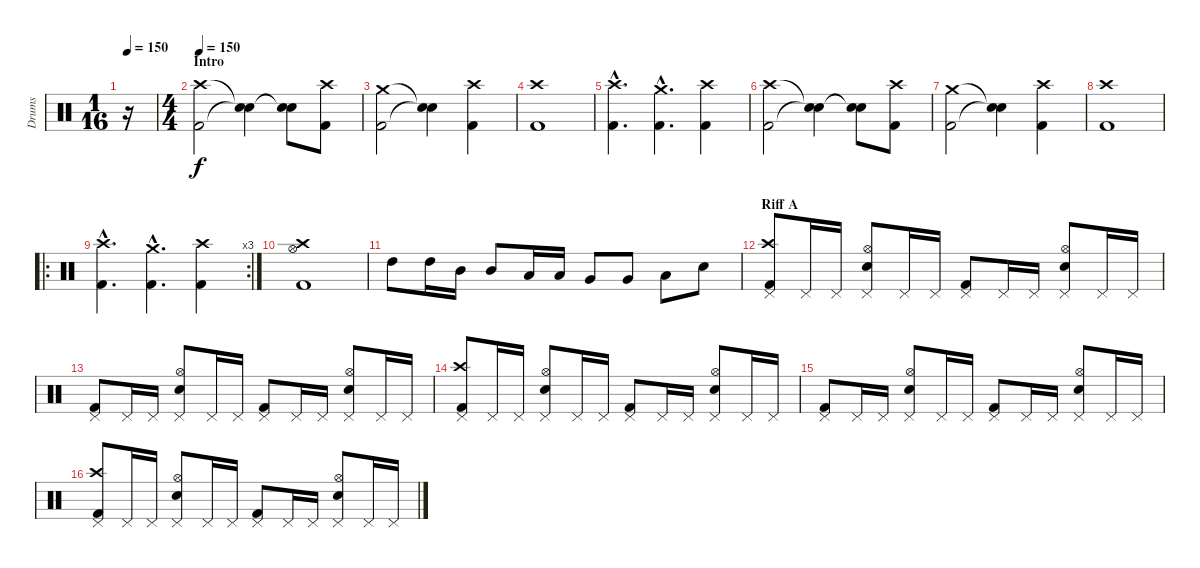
\track ("Drums" "Drums") {instrument percussion}
\staff {score}
\articulation defaults
\ts (1 16)
\tempo 150
\clef neutral
\ks c
r.16{dy f} |
\ts (4 4)
\section ("" "Intro")
\tempo 150
("Kick (hit) 2" "Crash high (hit)").2 ("Snare (hit)"{t} "Snare (hit)"{t}).4 ("Snare (hit)"{t} "Snare (hit)"{t}).8 ("Kick (hit) 2" "Crash high (hit)").8 |
("Kick (hit) 2" "Crash medium (hit)").2 ("Snare (hit)"{t} "Snare (hit)"{t}).4 ("Kick (hit) 2" "Crash high (hit)").4 |
("Kick (hit) 2" "Crash high (hit)").1 |
("Kick (hit) 2"{hac} "Crash high (hit)"{hac}).4{d} ("Kick (hit) 2"{hac} "Crash medium (hit)"{hac}).4{d} ("Kick (hit) 2" "Crash high (hit)").4 |
("Kick (hit) 2" "Crash high (hit)").2 ("Snare (hit)"{t} "Snare (hit)"{t}).4 ("Snare (hit)"{t} "Snare (hit)"{t}).8 ("Kick (hit) 2" "Crash high (hit)").8 |
("Kick (hit) 2" "Crash medium (hit)").2 ("Snare (hit)"{t} "Snare (hit)"{t}).4 ("Kick (hit) 2" "Crash high (hit)").4 |
("Kick (hit) 2" "Crash high (hit)").1 |
\ro
\rc 3
("Kick (hit) 2"{hac} "Crash high (hit)"{hac}).4{d} ("Kick (hit) 2"{hac} "Crash medium (hit)"{hac}).4{d} ("Kick (hit) 2" "Crash high (hit)").4 |
("Kick (hit) 2" "Hi-Hat (open)" "Crash high (hit)").1 |
"High Tom (hit)".8 "High Tom (hit)".16 "Mid Tom (hit)".16 "Mid Tom (hit)".8 "Low Tom (hit)".16 "Low Tom (hit)".16 "Very Low Tom (hit)".8 "Very Low Tom (hit)".8 "Low Floor Tom (hit)".8 "Snare (hit) 2".8 |
\section ("" "Riff A")
("Kick (hit) 2" "Pedal Hi-Hat (hit)" "Crash high (hit)").8 "Pedal Hi-Hat (hit)".16 "Pedal Hi-Hat (hit)".16 ("Snare (hit) 2" "Pedal Hi-Hat (hit)" "Hi-Hat (open)").8 "Pedal Hi-Hat (hit)".16 "Pedal Hi-Hat (hit)".16 ("Kick (hit) 2" "Pedal Hi-Hat (hit)").8 "Pedal Hi-Hat (hit)".16 "Pedal Hi-Hat (hit)".16 ("Snare (hit) 2" "Pedal Hi-Hat (hit)" "Hi-Hat (open)").8 "Pedal Hi-Hat (hit)".16 "Pedal Hi-Hat (hit)".16 |
("Kick (hit) 2" "Pedal Hi-Hat (hit)").8 "Pedal Hi-Hat (hit)".16 "Pedal Hi-Hat (hit)".16 ("Snare (hit) 2" "Pedal Hi-Hat (hit)" "Hi-Hat (open)").8 "Pedal Hi-Hat (hit)".16 "Pedal Hi-Hat (hit)".16 ("Kick (hit) 2" "Pedal Hi-Hat (hit)").8 "Pedal Hi-Hat (hit)".16 "Pedal Hi-Hat (hit)".16 ("Snare (hit) 2" "Pedal Hi-Hat (hit)" "Hi-Hat (open)").8 "Pedal Hi-Hat (hit)".16 "Pedal Hi-Hat (hit)".16 |
("Kick (hit) 2" "Pedal Hi-Hat (hit)" "Crash high (hit)").8 "Pedal Hi-Hat (hit)".16 "Pedal Hi-Hat (hit)".16 ("Snare (hit) 2" "Pedal Hi-Hat (hit)" "Hi-Hat (open)").8 "Pedal Hi-Hat (hit)".16 "Pedal Hi-Hat (hit)".16 ("Kick (hit) 2" "Pedal Hi-Hat (hit)").8 "Pedal Hi-Hat (hit)".16 "Pedal Hi-Hat (hit)".16 ("Snare (hit) 2" "Pedal Hi-Hat (hit)" "Hi-Hat (open)").8 "Pedal Hi-Hat (hit)".16 "Pedal Hi-Hat (hit)".16 |
("Kick (hit) 2" "Pedal Hi-Hat (hit)").8 "Pedal Hi-Hat (hit)".16 "Pedal Hi-Hat (hit)".16 ("Snare (hit) 2" "Pedal Hi-Hat (hit)" "Hi-Hat (open)").8 "Pedal Hi-Hat (hit)".16 "Pedal Hi-Hat (hit)".16 ("Kick (hit) 2" "Pedal Hi-Hat (hit)").8 "Pedal Hi-Hat (hit)".16 "Pedal Hi-Hat (hit)".16 ("Snare (hit) 2" "Pedal Hi-Hat (hit)" "Hi-Hat (open)").8 "Pedal Hi-Hat (hit)".16 "Pedal Hi-Hat (hit)".16 |
("Kick (hit) 2" "Pedal Hi-Hat (hit)" "Crash high (hit)").8 "Pedal Hi-Hat (hit)".16 "Pedal Hi-Hat (hit)".16 ("Snare (hit) 2" "Pedal Hi-Hat (hit)" "Hi-Hat (open)").8 "Pedal Hi-Hat (hit)".16 "Pedal Hi-Hat (hit)".16 ("Kick (hit) 2" "Pedal Hi-Hat (hit)").8 "Pedal Hi-Hat (hit)".16 "Pedal Hi-Hat (hit)".16 ("Snare (hit) 2" "Pedal Hi-Hat (hit)" "Hi-Hat (open)").8 "Pedal Hi-Hat (hit)".16 "Pedal Hi-Hat (hit)".16
